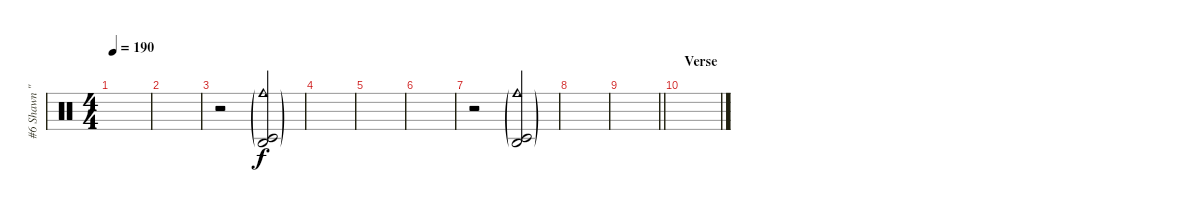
\track ("#6 Shawn \"Clown\" Crahan" "#6 Shawn \"") {instrument percussion}
\staff {score}
\articulation defaults
\ts (4 4)
\tempo 190
\clef neutral
\ks c
|
|
r.2 ("Cowbell medium (hit)"{g} "Timbale low (hit)"{g} "Agogo high (hit)"{g}).2 |
|
|
|
r.2 ("Cowbell medium (hit)"{g} "Timbale low (hit)"{g} "Agogo high (hit)"{g}).2 |
|
\barLineRight lightlight
|
\section ("" "Verse")
